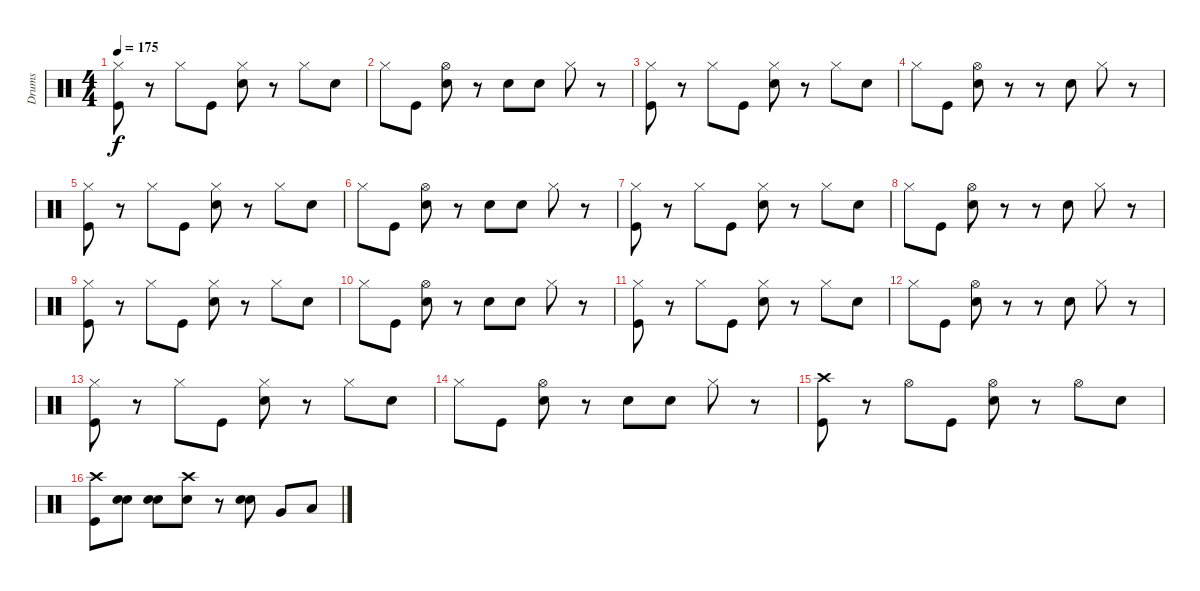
\track ("Drums" "Drums") {instrument percussion}
\staff {score}
\articulation defaults
\ts (4 4)
\tempo 175
\clef neutral
\ks c
("Hi-Hat (closed)" "Kick (hit)").8{dy f} r.8 "Hi-Hat (closed)".8 "Kick (hit)".8 ("Hi-Hat (closed)" "Snare (hit) 2").8 r.8 "Hi-Hat (closed)".8 "Snare (hit) 2".8 |
"Hi-Hat (closed)".8 "Kick (hit)".8 ("Hi-Hat (open)" "Snare (hit) 2").8 r.8 "Snare (hit) 2".8 "Snare (hit) 2".8 "Hi-Hat (closed)".8 r.8 |
("Hi-Hat (closed)" "Kick (hit)").8 r.8 "Hi-Hat (closed)".8 "Kick (hit)".8 ("Hi-Hat (closed)" "Snare (hit) 2").8 r.8 "Hi-Hat (closed)".8 "Snare (hit) 2".8 |
"Hi-Hat (closed)".8 "Kick (hit)".8 ("Hi-Hat (open)" "Snare (hit) 2").8 r.8 r.8 "Snare (hit) 2".8 "Hi-Hat (closed)".8 r.8 |
("Hi-Hat (closed)" "Kick (hit)").8 r.8 "Hi-Hat (closed)".8 "Kick (hit)".8 ("Hi-Hat (closed)" "Snare (hit) 2").8 r.8 "Hi-Hat (closed)".8 "Snare (hit) 2".8 |
"Hi-Hat (closed)".8 "Kick (hit)".8 ("Hi-Hat (open)" "Snare (hit) 2").8 r.8 "Snare (hit) 2".8 "Snare (hit) 2".8 "Hi-Hat (closed)".8 r.8 |
("Hi-Hat (closed)" "Kick (hit)").8 r.8 "Hi-Hat (closed)".8 "Kick (hit)".8 ("Hi-Hat (closed)" "Snare (hit) 2").8 r.8 "Hi-Hat (closed)".8 "Snare (hit) 2".8 |
"Hi-Hat (closed)".8 "Kick (hit)".8 ("Hi-Hat (open)" "Snare (hit) 2").8 r.8 r.8 "Snare (hit) 2".8 "Hi-Hat (closed)".8 r.8 |
("Hi-Hat (closed)" "Kick (hit)").8 r.8 "Hi-Hat (closed)".8 "Kick (hit)".8 ("Hi-Hat (closed)" "Snare (hit) 2").8 r.8 "Hi-Hat (closed)".8 "Snare (hit) 2".8 |
"Hi-Hat (closed)".8 "Kick (hit)".8 ("Hi-Hat (open)" "Snare (hit) 2").8 r.8 "Snare (hit) 2".8 "Snare (hit) 2".8 "Hi-Hat (closed)".8 r.8 |
("Hi-Hat (closed)" "Kick (hit)").8 r.8 "Hi-Hat (closed)".8 "Kick (hit)".8 ("Hi-Hat (closed)" "Snare (hit) 2").8 r.8 "Hi-Hat (closed)".8 "Snare (hit) 2".8 |
"Hi-Hat (closed)".8 "Kick (hit)".8 ("Hi-Hat (open)" "Snare (hit) 2").8 r.8 r.8 "Snare (hit) 2".8 "Hi-Hat (closed)".8 r.8 |
("Hi-Hat (closed)" "Kick (hit)").8 r.8 "Hi-Hat (closed)".8 "Kick (hit)".8 ("Hi-Hat (closed)" "Snare (hit) 2").8 r.8 "Hi-Hat (closed)".8 "Snare (hit) 2".8 |
"Hi-Hat (closed)".8 "Kick (hit)".8 ("Hi-Hat (open)" "Snare (hit) 2").8 r.8 "Snare (hit) 2".8 "Snare (hit) 2".8 "Hi-Hat (closed)".8 r.8 |
("Crash high (hit)" "Kick (hit)").8 r.8 "Hi-Hat (open)".8 "Kick (hit)".8 ("Hi-Hat (open)" "Snare (hit) 2").8 r.8 "Hi-Hat (open)".8 "Snare (hit) 2".8 |
("Crash high (hit)" "Kick (hit)").8 ("Snare (hit) 2" "Snare (hit) 2").8 ("Snare (hit) 2" "Snare (hit) 2").8 ("Crash high (hit)" "Snare (hit) 2").8 r.8 ("Snare (hit) 2" "Snare (hit) 2").8 "Very Low Tom (hit)".8 "Low Floor Tom (hit)".8
